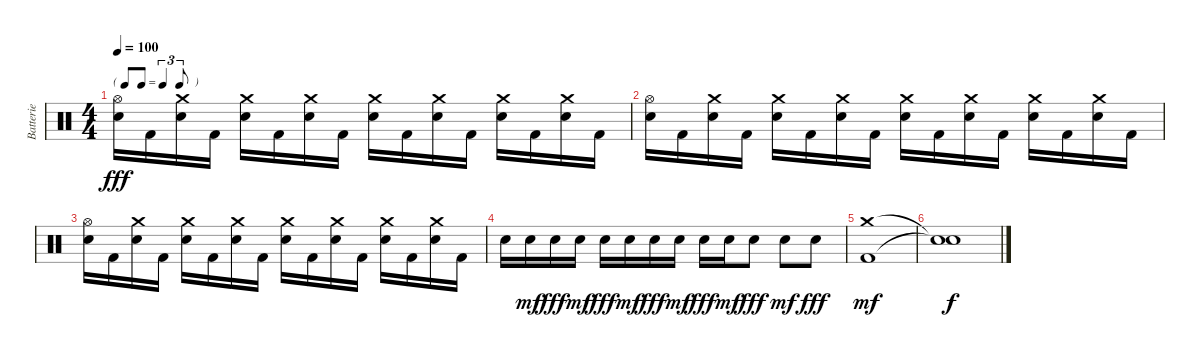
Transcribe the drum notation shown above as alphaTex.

\track ("Batterie" "Batterie") {instrument percussion}
\staff {score}
\articulation defaults
\ts (4 4)
\tf triplet8th
\tempo 100
\clef neutral
\ks c
("Hi-Hat (open)" "Electric Snare (hit)").16{dy fff} "Kick (hit) 2".16 ("Crash medium (hit)" "Electric Snare (hit)").16 "Kick (hit) 2".16 ("Crash medium (hit)" "Electric Snare (hit)").16 "Kick (hit) 2".16 ("Crash medium (hit)" "Electric Snare (hit)").16 "Kick (hit) 2".16 ("Crash medium (hit)" "Electric Snare (hit)").16 "Kick (hit) 2".16 ("Crash medium (hit)" "Electric Snare (hit)").16 "Kick (hit) 2".16 ("Crash medium (hit)" "Electric Snare (hit)").16 "Kick (hit) 2".16 ("Crash medium (hit)" "Electric Snare (hit)").16 "Kick (hit) 2".16 |
("Hi-Hat (open)" "Electric Snare (hit)").16 "Kick (hit) 2".16 ("Crash medium (hit)" "Electric Snare (hit)").16 "Kick (hit) 2".16 ("Crash medium (hit)" "Electric Snare (hit)").16 "Kick (hit) 2".16 ("Crash medium (hit)" "Electric Snare (hit)").16 "Kick (hit) 2".16 ("Crash medium (hit)" "Electric Snare (hit)").16 "Kick (hit) 2".16 ("Crash medium (hit)" "Electric Snare (hit)").16 "Kick (hit) 2".16 ("Crash medium (hit)" "Electric Snare (hit)").16 "Kick (hit) 2".16 ("Crash medium (hit)" "Electric Snare (hit)").16 "Kick (hit) 2".16 |
("Hi-Hat (open)" "Electric Snare (hit)").16 "Kick (hit) 2".16 ("Crash medium (hit)" "Electric Snare (hit)").16 "Kick (hit) 2".16 ("Crash medium (hit)" "Electric Snare (hit)").16 "Kick (hit) 2".16 ("Crash medium (hit)" "Electric Snare (hit)").16 "Kick (hit) 2".16 ("Crash medium (hit)" "Electric Snare (hit)").16 "Kick (hit) 2".16 ("Crash medium (hit)" "Electric Snare (hit)").16 "Kick (hit) 2".16 ("Crash medium (hit)" "Electric Snare (hit)").16 "Kick (hit) 2".16 ("Crash medium (hit)" "Electric Snare (hit)").16 "Kick (hit) 2".16 |
"Electric Snare (hit)".16 "Electric Snare (hit)".16{dy mf} "Electric Snare (hit)".16{dy fff} "Electric Snare (hit)".16{dy mf} "Electric Snare (hit)".16{dy fff} "Electric Snare (hit)".16{dy mf} "Electric Snare (hit)".16{dy fff} "Electric Snare (hit)".16{dy mf} "Electric Snare (hit)".16{dy fff} "Electric Snare (hit)".16{dy mf} "Electric Snare (hit)".8{dy fff} "Electric Snare (hit)".8{dy mf} "Electric Snare (hit)".8{dy fff} |
("Crash medium (hit)" "Kick (hit) 2").1{dy mf} |
("Snare (hit)"{t} "Snare (hit)"{t}).1{dy f}
